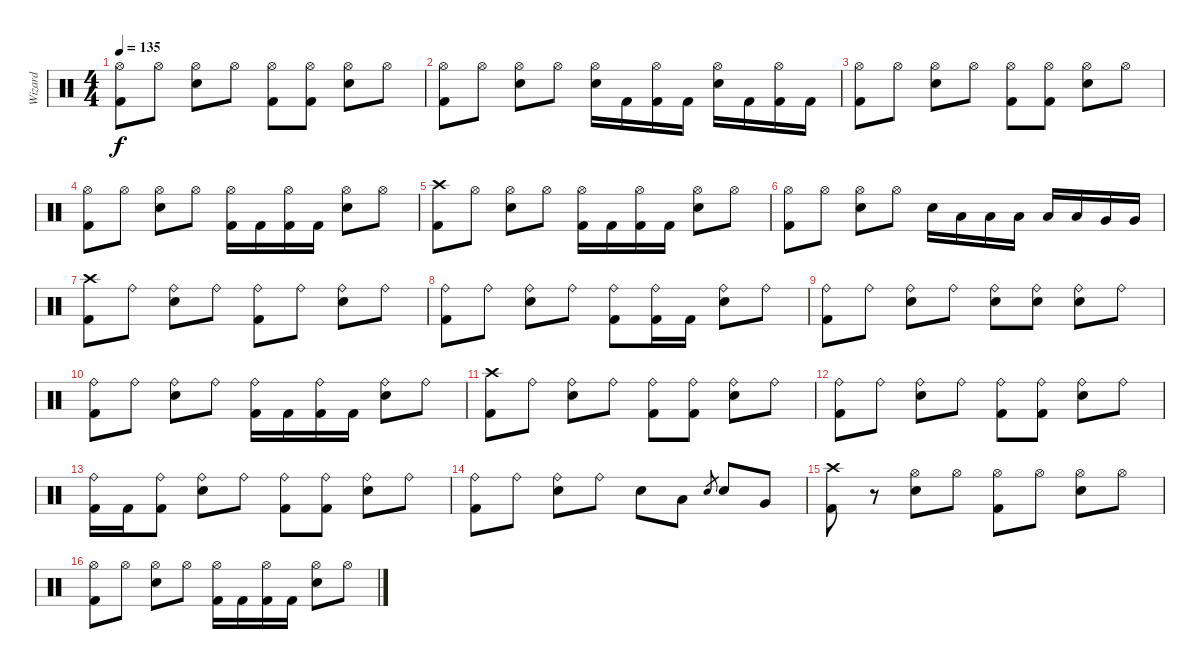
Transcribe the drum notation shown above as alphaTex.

\track ("Wizard" "Wizard") {instrument percussion}
\staff {score}
\articulation defaults
\ts (4 4)
\tempo 135
\clef neutral
\ks c
("Hi-Hat (open)" "Kick (hit) 2").8{dy f} "Hi-Hat (open)".8 ("Hi-Hat (open)" "Snare (hit) 2").8 "Hi-Hat (open)".8 ("Hi-Hat (open)" "Kick (hit) 2").8 ("Hi-Hat (open)" "Kick (hit) 2").8 ("Hi-Hat (open)" "Snare (hit) 2").8 "Hi-Hat (open)".8 |
("Hi-Hat (open)" "Kick (hit) 2").8 "Hi-Hat (open)".8 ("Hi-Hat (open)" "Snare (hit) 2").8 "Hi-Hat (open)".8 ("Hi-Hat (open)" "Snare (hit) 2").16 "Kick (hit) 2".16 ("Hi-Hat (open)" "Kick (hit) 2").16 "Kick (hit) 2".16 ("Hi-Hat (open)" "Snare (hit) 2").16 "Kick (hit) 2".16 ("Hi-Hat (open)" "Kick (hit) 2").16 "Kick (hit) 2".16 |
("Hi-Hat (open)" "Kick (hit) 2").8 "Hi-Hat (open)".8 ("Hi-Hat (open)" "Snare (hit) 2").8 "Hi-Hat (open)".8 ("Hi-Hat (open)" "Kick (hit) 2").8 ("Hi-Hat (open)" "Kick (hit) 2").8 ("Hi-Hat (open)" "Snare (hit) 2").8 "Hi-Hat (open)".8 |
("Hi-Hat (open)" "Kick (hit) 2").8 "Hi-Hat (open)".8 ("Hi-Hat (open)" "Snare (hit) 2").8 "Hi-Hat (open)".8 ("Hi-Hat (open)" "Kick (hit) 2").16 "Kick (hit) 2".16 ("Hi-Hat (open)" "Kick (hit) 2").16 "Kick (hit) 2".16 ("Hi-Hat (open)" "Snare (hit) 2").8 "Hi-Hat (open)".8 |
("Crash high (hit)" "Kick (hit) 2").8 "Hi-Hat (open)".8 ("Hi-Hat (open)" "Snare (hit) 2").8 "Hi-Hat (open)".8 ("Hi-Hat (open)" "Kick (hit) 2").16 "Kick (hit) 2".16 ("Hi-Hat (open)" "Kick (hit) 2").16 "Kick (hit) 2".16 ("Hi-Hat (open)" "Snare (hit) 2").8 "Hi-Hat (open)".8 |
("Hi-Hat (open)" "Kick (hit) 2").8 "Hi-Hat (open)".8 ("Hi-Hat (open)" "Snare (hit) 2").8 "Hi-Hat (open)".8 "Snare (hit) 2".16 "Low Tom (hit)".16 "Low Tom (hit)".16 "Low Tom (hit)".16 "Low Tom (hit)".16 "Low Tom (hit)".16 "Very Low Tom (hit)".16 "Very Low Tom (hit)".16 |
("Crash high (hit)" "Kick (hit) 2").8 "Ride (bell)".8 ("Ride (bell)" "Snare (hit) 2").8 "Ride (bell)".8 ("Ride (bell)" "Kick (hit) 2").8 "Ride (bell)".8 ("Ride (bell)" "Snare (hit) 2").8 "Ride (bell)".8 |
("Ride (bell)" "Kick (hit) 2").8 "Ride (bell)".8 ("Ride (bell)" "Snare (hit) 2").8 "Ride (bell)".8 ("Ride (bell)" "Kick (hit) 2").8 ("Ride (bell)" "Kick (hit) 2").16 "Kick (hit) 2".16 ("Ride (bell)" "Snare (hit) 2").8 "Ride (bell)".8 |
("Ride (bell)" "Kick (hit) 2").8 "Ride (bell)".8 ("Ride (bell)" "Snare (hit) 2").8 "Ride (bell)".8 ("Ride (bell)" "Snare (hit) 2").8 ("Ride (bell)" "Snare (hit) 2").8 ("Ride (bell)" "Snare (hit) 2").8 "Ride (bell)".8 |
("Ride (bell)" "Kick (hit) 2").8 "Ride (bell)".8 ("Ride (bell)" "Snare (hit) 2").8 "Ride (bell)".8 ("Ride (bell)" "Kick (hit) 2").16 "Kick (hit) 2".16 ("Ride (bell)" "Kick (hit) 2").16 "Kick (hit) 2".16 ("Ride (bell)" "Snare (hit) 2").8 "Ride (bell)".8 |
("Crash high (hit)" "Kick (hit) 2").8 "Ride (bell)".8 ("Ride (bell)" "Snare (hit) 2").8 "Ride (bell)".8 ("Ride (bell)" "Kick (hit) 2").8 ("Ride (bell)" "Kick (hit) 2").8 ("Ride (bell)" "Snare (hit) 2").8 "Ride (bell)".8 |
("Ride (bell)" "Kick (hit) 2").8 "Ride (bell)".8 ("Ride (bell)" "Snare (hit) 2").8 "Ride (bell)".8 ("Ride (bell)" "Kick (hit) 2").8 ("Ride (bell)" "Kick (hit) 2").8 ("Ride (bell)" "Snare (hit) 2").8 "Ride (bell)".8 |
("Ride (bell)" "Kick (hit) 2").16 "Kick (hit) 2".16 ("Ride (bell)" "Kick (hit) 2").8 ("Ride (bell)" "Snare (hit) 2").8 "Ride (bell)".8 ("Ride (bell)" "Kick (hit) 2").8 ("Ride (bell)" "Kick (hit) 2").8 ("Ride (bell)" "Snare (hit) 2").8 "Ride (bell)".8 |
("Ride (bell)" "Kick (hit) 2").8 "Ride (bell)".8 ("Ride (bell)" "Snare (hit) 2").8 "Ride (bell)".8 "Snare (hit) 2".8 "Low Tom (hit)".8 "Snare (hit) 2".8{gr} "Snare (hit) 2".8 "Very Low Tom (hit)".8 |
("Crash high (hit)" "Kick (hit) 2").8 r.8 ("Hi-Hat (open)" "Snare (hit) 2").8 "Hi-Hat (open)".8 ("Hi-Hat (open)" "Kick (hit) 2").8 "Hi-Hat (open)".8 ("Hi-Hat (open)" "Snare (hit) 2").8 "Hi-Hat (open)".8 |
("Hi-Hat (open)" "Kick (hit) 2").8 "Hi-Hat (open)".8 ("Hi-Hat (open)" "Snare (hit) 2").8 "Hi-Hat (open)".8 ("Hi-Hat (open)" "Kick (hit) 2").16 "Kick (hit) 2".16 ("Hi-Hat (open)" "Kick (hit) 2").16 "Kick (hit) 2".16 ("Hi-Hat (open)" "Snare (hit) 2").8 "Hi-Hat (open)".8
